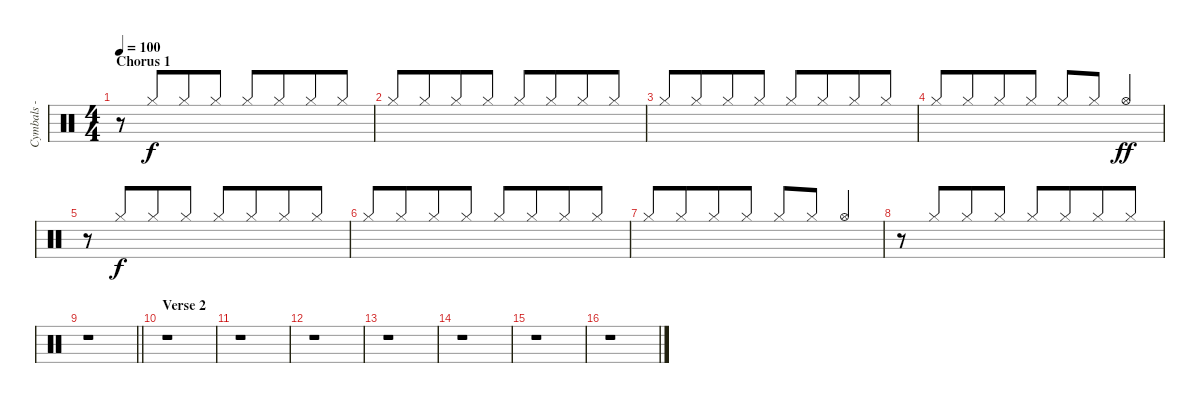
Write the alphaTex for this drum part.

\track ("Cymbals - Hi-Hat" "Cymbals - ") {instrument percussion}
\staff {score}
\articulation defaults
\ts (4 4)
\section ("" "Chorus 1")
\tempo 100
\clef neutral
\ks c
r.8{dy f} "Hi-Hat (closed)".8{beam Up beam merge} "Hi-Hat (closed)".8{beam Up} "Hi-Hat (closed)".8{beam Up} "Hi-Hat (closed)".8{beam Up} "Hi-Hat (closed)".8{beam Up beam merge} "Hi-Hat (closed)".8{beam Up} "Hi-Hat (closed)".8{beam Up} |
"Hi-Hat (closed)".8{beam Up} "Hi-Hat (closed)".8{beam Up beam merge} "Hi-Hat (closed)".8{beam Up} "Hi-Hat (closed)".8{beam Up} "Hi-Hat (closed)".8{beam Up} "Hi-Hat (closed)".8{beam Up beam merge} "Hi-Hat (closed)".8{beam Up} "Hi-Hat (closed)".8{beam Up} |
"Hi-Hat (closed)".8{beam Up} "Hi-Hat (closed)".8{beam Up beam merge} "Hi-Hat (closed)".8{beam Up} "Hi-Hat (closed)".8{beam Up} "Hi-Hat (closed)".8{beam Up} "Hi-Hat (closed)".8{beam Up beam merge} "Hi-Hat (closed)".8{beam Up} "Hi-Hat (closed)".8{beam Up} |
"Hi-Hat (closed)".8{beam Up} "Hi-Hat (closed)".8{beam Up beam merge} "Hi-Hat (closed)".8{beam Up} "Hi-Hat (closed)".8{beam Up} "Hi-Hat (closed)".8{beam Up} "Hi-Hat (closed)".8{beam Up beam merge} "Hi-Hat (open)".4{dy ff beam Up} |
r.8 "Hi-Hat (closed)".8{dy f beam Up beam merge} "Hi-Hat (closed)".8{beam Up} "Hi-Hat (closed)".8{beam Up} "Hi-Hat (closed)".8{beam Up} "Hi-Hat (closed)".8{beam Up beam merge} "Hi-Hat (closed)".8{beam Up} "Hi-Hat (closed)".8{beam Up} |
"Hi-Hat (closed)".8{beam Up} "Hi-Hat (closed)".8{beam Up beam merge} "Hi-Hat (closed)".8{beam Up} "Hi-Hat (closed)".8{beam Up} "Hi-Hat (closed)".8{beam Up} "Hi-Hat (closed)".8{beam Up beam merge} "Hi-Hat (closed)".8{beam Up} "Hi-Hat (closed)".8{beam Up} |
"Hi-Hat (closed)".8{beam Up} "Hi-Hat (closed)".8{beam Up beam merge} "Hi-Hat (closed)".8{beam Up} "Hi-Hat (closed)".8{beam Up} "Hi-Hat (closed)".8{beam Up} "Hi-Hat (closed)".8{beam Up beam merge} "Hi-Hat (open)".4{beam Up} |
r.8 "Hi-Hat (closed)".8{beam Up beam merge} "Hi-Hat (closed)".8{beam Up} "Hi-Hat (closed)".8{beam Up} "Hi-Hat (closed)".8{beam Up} "Hi-Hat (closed)".8{beam Up beam merge} "Hi-Hat (closed)".8{beam Up} "Hi-Hat (closed)".8{beam Up} |
\barLineRight lightlight
r.1 |
\section ("" "Verse 2")
r.1 |
r.1 |
r.1 |
r.1 |
r.1 |
r.1 |
r.1
